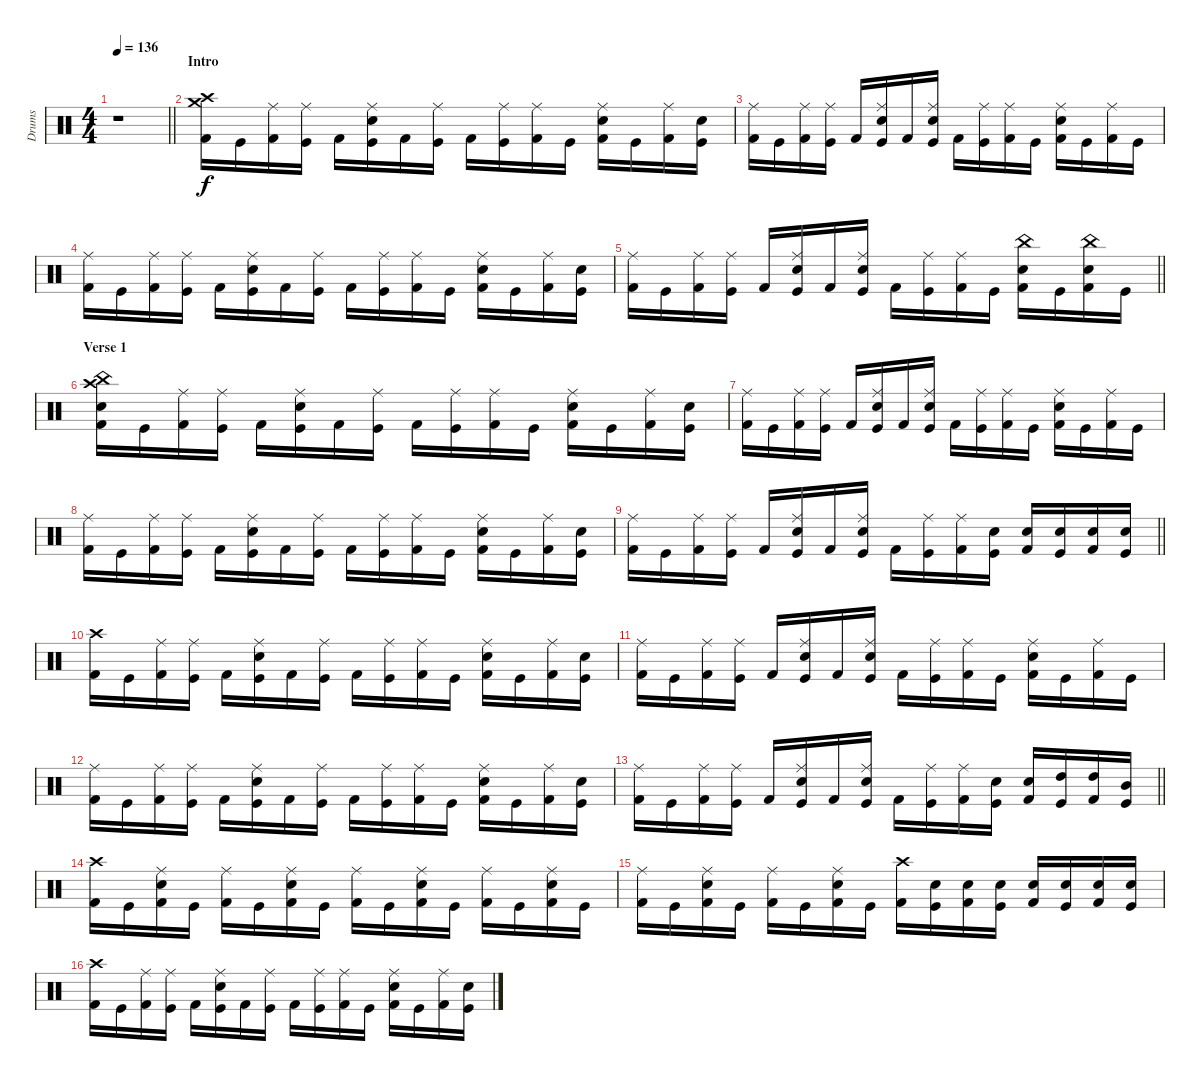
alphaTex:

\track ("Drums" "Drums") {instrument percussion}
\staff {score}
\articulation defaults
\ts (4 4)
\tempo 136
\clef neutral
\barLineRight lightlight
\ks c
r.1{dy f} |
\section ("" "Intro")
("Kick (hit) 2" "Crash high (hit)" "Crash medium (hit)").16 "Kick (hit)".16 ("Kick (hit) 2" "Ride (middle)").16 ("Kick (hit)" "Ride (middle)").16 "Kick (hit) 2".16 ("Kick (hit)" "Snare (hit) 2" "Ride (middle)").16 "Kick (hit) 2".16 ("Kick (hit)" "Ride (middle)").16 "Kick (hit) 2".16 ("Kick (hit)" "Ride (middle)").16 ("Kick (hit) 2" "Ride (middle)").16 "Kick (hit)".16 ("Kick (hit) 2" "Snare (hit) 2" "Ride (middle)").16 "Kick (hit)".16 ("Kick (hit) 2" "Ride (middle)").16 ("Kick (hit)" "Snare (hit) 2").16 |
("Kick (hit) 2" "Ride (middle)").16 "Kick (hit)".16 ("Kick (hit) 2" "Ride (middle)").16 ("Kick (hit)" "Ride (middle)").16 "Kick (hit) 2".16 ("Kick (hit)" "Snare (hit) 2" "Ride (middle)").16 "Kick (hit) 2".16 ("Kick (hit)" "Snare (hit) 2" "Ride (middle)").16 "Kick (hit) 2".16 ("Kick (hit)" "Ride (middle)").16 ("Kick (hit) 2" "Ride (middle)").16 "Kick (hit)".16 ("Kick (hit) 2" "Snare (hit) 2" "Ride (middle)").16 "Kick (hit)".16 ("Kick (hit) 2" "Ride (middle)").16 "Kick (hit)".16 |
("Kick (hit) 2" "Ride (middle)").16 "Kick (hit)".16 ("Kick (hit) 2" "Ride (middle)").16 ("Kick (hit)" "Ride (middle)").16 "Kick (hit) 2".16 ("Kick (hit)" "Snare (hit) 2" "Ride (middle)").16 "Kick (hit) 2".16 ("Kick (hit)" "Ride (middle)").16 "Kick (hit) 2".16 ("Kick (hit)" "Ride (middle)").16 ("Kick (hit) 2" "Ride (middle)").16 "Kick (hit)".16 ("Kick (hit) 2" "Snare (hit) 2" "Ride (middle)").16 "Kick (hit)".16 ("Kick (hit) 2" "Ride (middle)").16 ("Kick (hit)" "Snare (hit) 2").16 |
\barLineRight lightlight
("Kick (hit) 2" "Ride (middle)").16 "Kick (hit)".16 ("Kick (hit) 2" "Ride (middle)").16 ("Kick (hit)" "Ride (middle)").16 "Kick (hit) 2".16 ("Kick (hit)" "Snare (hit) 2" "Ride (middle)").16 "Kick (hit) 2".16 ("Kick (hit)" "Snare (hit) 2" "Ride (middle)").16 "Kick (hit) 2".16 ("Kick (hit)" "Ride (middle)").16 ("Kick (hit) 2" "Ride (middle)").16 "Kick (hit)".16 ("Kick (hit) 2" "Snare (hit) 2" "China (hit)").16 "Kick (hit)".16 ("Kick (hit) 2" "Snare (hit) 2" "China (hit)").16 "Kick (hit)".16 |
\section ("" "Verse 1")
("Kick (hit) 2" "Snare (hit) 2" "Crash high (hit)" "China (hit)").16 "Kick (hit)".16 ("Kick (hit) 2" "Ride (middle)").16 ("Kick (hit)" "Ride (middle)").16 "Kick (hit) 2".16 ("Kick (hit)" "Snare (hit) 2" "Ride (middle)").16 "Kick (hit) 2".16 ("Kick (hit)" "Ride (middle)").16 "Kick (hit) 2".16 ("Kick (hit)" "Ride (middle)").16 ("Kick (hit) 2" "Ride (middle)").16 "Kick (hit)".16 ("Kick (hit) 2" "Snare (hit) 2" "Ride (middle)").16 "Kick (hit)".16 ("Kick (hit) 2" "Ride (middle)").16 ("Kick (hit)" "Snare (hit) 2").16 |
("Kick (hit) 2" "Ride (middle)").16 "Kick (hit)".16 ("Kick (hit) 2" "Ride (middle)").16 ("Kick (hit)" "Ride (middle)").16 "Kick (hit) 2".16 ("Kick (hit)" "Snare (hit) 2" "Ride (middle)").16 "Kick (hit) 2".16 ("Kick (hit)" "Snare (hit) 2" "Ride (middle)").16 "Kick (hit) 2".16 ("Kick (hit)" "Ride (middle)").16 ("Kick (hit) 2" "Ride (middle)").16 "Kick (hit)".16 ("Kick (hit) 2" "Snare (hit) 2" "Ride (middle)").16 "Kick (hit)".16 ("Kick (hit) 2" "Ride (middle)").16 "Kick (hit)".16 |
("Kick (hit) 2" "Ride (middle)").16 "Kick (hit)".16 ("Kick (hit) 2" "Ride (middle)").16 ("Kick (hit)" "Ride (middle)").16 "Kick (hit) 2".16 ("Kick (hit)" "Snare (hit) 2" "Ride (middle)").16 "Kick (hit) 2".16 ("Kick (hit)" "Ride (middle)").16 "Kick (hit) 2".16 ("Kick (hit)" "Ride (middle)").16 ("Kick (hit) 2" "Ride (middle)").16 "Kick (hit)".16 ("Kick (hit) 2" "Snare (hit) 2" "Ride (middle)").16 "Kick (hit)".16 ("Kick (hit) 2" "Ride (middle)").16 ("Kick (hit)" "Snare (hit) 2").16 |
\barLineRight lightlight
("Kick (hit) 2" "Ride (middle)").16 "Kick (hit)".16 ("Kick (hit) 2" "Ride (middle)").16 ("Kick (hit)" "Ride (middle)").16 "Kick (hit) 2".16 ("Kick (hit)" "Snare (hit) 2" "Ride (middle)").16 "Kick (hit) 2".16 ("Kick (hit)" "Snare (hit) 2" "Ride (middle)").16 "Kick (hit) 2".16 ("Kick (hit)" "Ride (middle)").16 ("Kick (hit) 2" "Ride (middle)").16 ("Kick (hit)" "Snare (hit) 2").16 ("Kick (hit) 2" "Snare (hit) 2").16 ("Kick (hit)" "Snare (hit) 2").16 ("Kick (hit) 2" "Snare (hit) 2").16 ("Kick (hit)" "Snare (hit) 2").16 |
("Kick (hit) 2" "Crash high (hit)").16 "Kick (hit)".16 ("Kick (hit) 2" "Ride (middle)").16 ("Kick (hit)" "Ride (middle)").16 "Kick (hit) 2".16 ("Kick (hit)" "Snare (hit) 2" "Ride (middle)").16 "Kick (hit) 2".16 ("Kick (hit)" "Ride (middle)").16 "Kick (hit) 2".16 ("Kick (hit)" "Ride (middle)").16 ("Kick (hit) 2" "Ride (middle)").16 "Kick (hit)".16 ("Kick (hit) 2" "Snare (hit) 2" "Ride (middle)").16 "Kick (hit)".16 ("Kick (hit) 2" "Ride (middle)").16 ("Kick (hit)" "Snare (hit) 2").16 |
("Kick (hit) 2" "Ride (middle)").16 "Kick (hit)".16 ("Kick (hit) 2" "Ride (middle)").16 ("Kick (hit)" "Ride (middle)").16 "Kick (hit) 2".16 ("Kick (hit)" "Snare (hit) 2" "Ride (middle)").16 "Kick (hit) 2".16 ("Kick (hit)" "Snare (hit) 2" "Ride (middle)").16 "Kick (hit) 2".16 ("Kick (hit)" "Ride (middle)").16 ("Kick (hit) 2" "Ride (middle)").16 "Kick (hit)".16 ("Kick (hit) 2" "Snare (hit) 2" "Ride (middle)").16 "Kick (hit)".16 ("Kick (hit) 2" "Ride (middle)").16 "Kick (hit)".16 |
("Kick (hit) 2" "Ride (middle)").16 "Kick (hit)".16 ("Kick (hit) 2" "Ride (middle)").16 ("Kick (hit)" "Ride (middle)").16 "Kick (hit) 2".16 ("Kick (hit)" "Snare (hit) 2" "Ride (middle)").16 "Kick (hit) 2".16 ("Kick (hit)" "Ride (middle)").16 "Kick (hit) 2".16 ("Kick (hit)" "Ride (middle)").16 ("Kick (hit) 2" "Ride (middle)").16 "Kick (hit)".16 ("Kick (hit) 2" "Snare (hit) 2" "Ride (middle)").16 "Kick (hit)".16 ("Kick (hit) 2" "Ride (middle)").16 ("Kick (hit)" "Snare (hit) 2").16 |
\barLineRight lightlight
("Kick (hit) 2" "Ride (middle)").16 "Kick (hit)".16 ("Kick (hit) 2" "Ride (middle)").16 ("Kick (hit)" "Ride (middle)").16 "Kick (hit) 2".16 ("Kick (hit)" "Snare (hit) 2" "Ride (middle)").16 "Kick (hit) 2".16 ("Kick (hit)" "Snare (hit) 2" "Ride (middle)").16 "Kick (hit) 2".16 ("Kick (hit)" "Ride (middle)").16 ("Kick (hit) 2" "Ride (middle)").16 ("Kick (hit)" "Snare (hit) 2").16 ("Kick (hit) 2" "Snare (hit) 2").16 ("Kick (hit)" "High Tom (hit)").16 ("Kick (hit) 2" "High Tom (hit)").16 ("Kick (hit)" "Mid Tom (hit)").16 |
("Kick (hit) 2" "Crash high (hit)").16 "Kick (hit)".16 ("Kick (hit) 2" "Snare (hit) 2" "Ride (middle)").16 "Kick (hit)".16 ("Kick (hit) 2" "Ride (middle)").16 "Kick (hit)".16 ("Kick (hit) 2" "Snare (hit) 2" "Ride (middle)").16 "Kick (hit)".16 ("Kick (hit) 2" "Ride (middle)").16 "Kick (hit)".16 ("Kick (hit) 2" "Snare (hit) 2" "Ride (middle)").16 "Kick (hit)".16 ("Kick (hit) 2" "Ride (middle)").16 "Kick (hit)".16 ("Kick (hit) 2" "Snare (hit) 2" "Ride (middle)").16 "Kick (hit)".16 |
("Kick (hit) 2" "Ride (middle)").16 "Kick (hit)".16 ("Kick (hit) 2" "Snare (hit) 2" "Ride (middle)").16 "Kick (hit)".16 ("Kick (hit) 2" "Ride (middle)").16 "Kick (hit)".16 ("Kick (hit) 2" "Snare (hit) 2" "Ride (middle)").16 "Kick (hit)".16 ("Kick (hit) 2" "Crash high (hit)").16 ("Kick (hit)" "Snare (hit) 2").16 ("Kick (hit) 2" "Snare (hit) 2").16 ("Kick (hit)" "Snare (hit) 2").16 ("Kick (hit) 2" "Snare (hit) 2").16 ("Kick (hit)" "Snare (hit) 2").16 ("Kick (hit) 2" "Snare (hit) 2").16 ("Kick (hit)" "Snare (hit) 2").16 |
("Kick (hit) 2" "Crash high (hit)").16 "Kick (hit)".16 ("Kick (hit) 2" "Ride (middle)").16 ("Kick (hit)" "Ride (middle)").16 "Kick (hit) 2".16 ("Kick (hit)" "Snare (hit) 2" "Ride (middle)").16 "Kick (hit) 2".16 ("Kick (hit)" "Ride (middle)").16 "Kick (hit) 2".16 ("Kick (hit)" "Ride (middle)").16 ("Kick (hit) 2" "Ride (middle)").16 "Kick (hit)".16 ("Kick (hit) 2" "Snare (hit) 2" "Ride (middle)").16 "Kick (hit)".16 ("Kick (hit) 2" "Ride (middle)").16 ("Kick (hit)" "Snare (hit) 2").16
